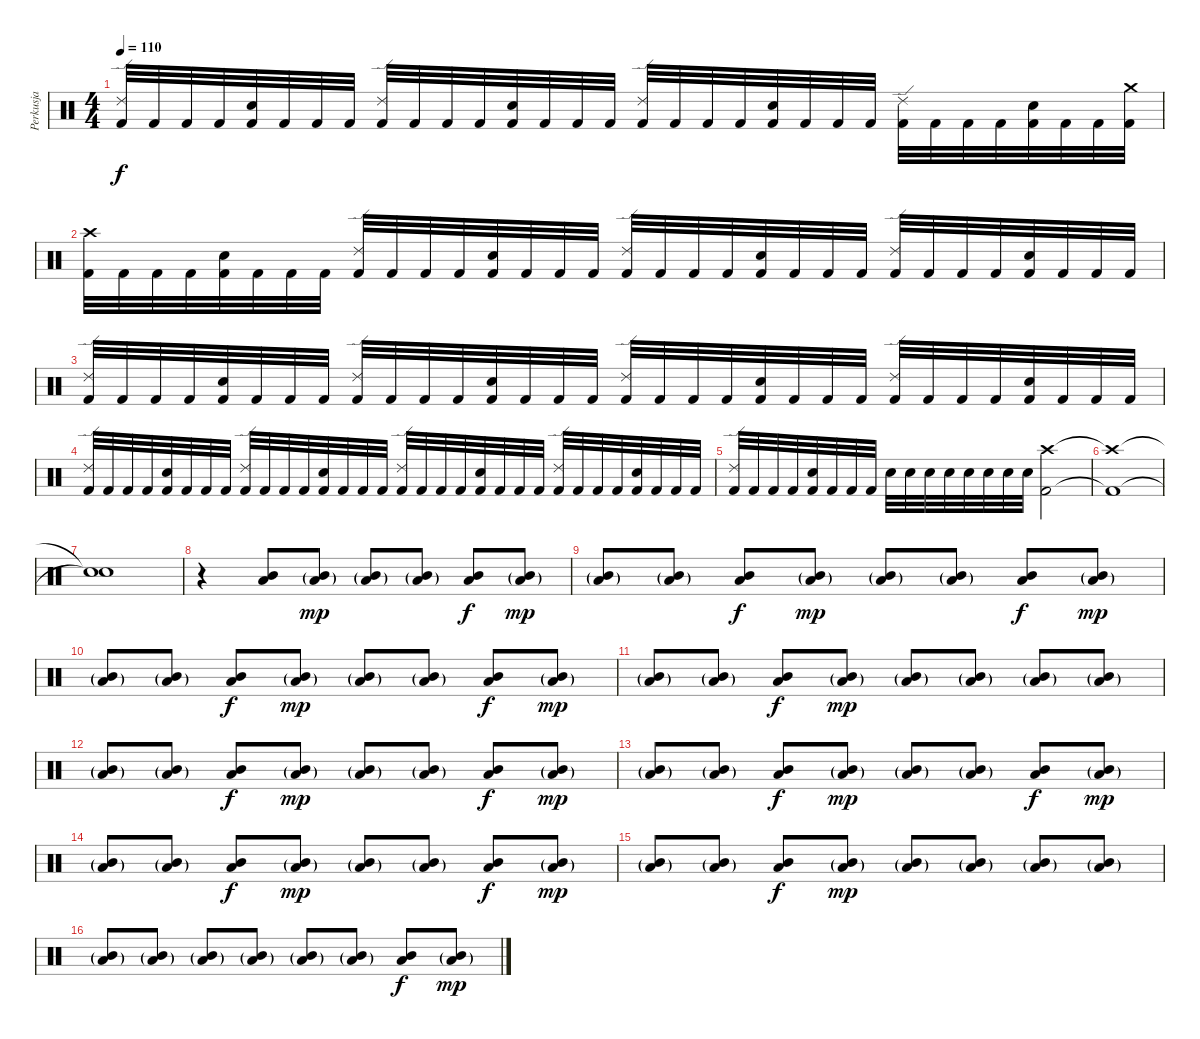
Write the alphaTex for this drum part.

\track ("Perkusja" "Perkusja") {instrument percussion}
\staff {score}
\articulation defaults
\ts (4 4)
\tempo 110
\clef neutral
\ks c
("Ride (edge) 2" "Kick (hit) 2").32{dy f} "Kick (hit) 2".32 "Kick (hit) 2".32 "Kick (hit) 2".32 ("Snare (hit) 2" "Kick (hit) 2").32 "Kick (hit) 2".32 "Kick (hit) 2".32 "Kick (hit) 2".32 ("Ride (edge) 2" "Kick (hit) 2").32 "Kick (hit) 2".32 "Kick (hit) 2".32 "Kick (hit) 2".32 ("Snare (hit) 2" "Kick (hit) 2").32 "Kick (hit) 2".32 "Kick (hit) 2".32 "Kick (hit) 2".32 ("Ride (edge) 2" "Kick (hit) 2").32 "Kick (hit) 2".32 "Kick (hit) 2".32 "Kick (hit) 2".32 ("Snare (hit) 2" "Kick (hit) 2").32 "Kick (hit) 2".32 "Kick (hit) 2".32 "Kick (hit) 2".32 ("Ride (edge) 2" "Kick (hit) 2").32 "Kick (hit) 2".32 "Kick (hit) 2".32 "Kick (hit) 2".32 ("Snare (hit) 2" "Kick (hit) 2").32 "Kick (hit) 2".32 "Kick (hit) 2".32 ("Crash medium (hit)" "Kick (hit) 2").32 |
("Crash high (hit)" "Kick (hit) 2").32 "Kick (hit) 2".32 "Kick (hit) 2".32 "Kick (hit) 2".32 ("Snare (hit) 2" "Kick (hit) 2").32 "Kick (hit) 2".32 "Kick (hit) 2".32 "Kick (hit) 2".32 ("Ride (edge) 2" "Kick (hit) 2").32 "Kick (hit) 2".32 "Kick (hit) 2".32 "Kick (hit) 2".32 ("Snare (hit) 2" "Kick (hit) 2").32 "Kick (hit) 2".32 "Kick (hit) 2".32 "Kick (hit) 2".32 ("Ride (edge) 2" "Kick (hit) 2").32 "Kick (hit) 2".32 "Kick (hit) 2".32 "Kick (hit) 2".32 ("Snare (hit) 2" "Kick (hit) 2").32 "Kick (hit) 2".32 "Kick (hit) 2".32 "Kick (hit) 2".32 ("Ride (edge) 2" "Kick (hit) 2").32 "Kick (hit) 2".32 "Kick (hit) 2".32 "Kick (hit) 2".32 ("Snare (hit) 2" "Kick (hit) 2").32 "Kick (hit) 2".32 "Kick (hit) 2".32 "Kick (hit) 2".32 |
("Ride (edge) 2" "Kick (hit) 2").32 "Kick (hit) 2".32 "Kick (hit) 2".32 "Kick (hit) 2".32 ("Snare (hit) 2" "Kick (hit) 2").32 "Kick (hit) 2".32 "Kick (hit) 2".32 "Kick (hit) 2".32 ("Ride (edge) 2" "Kick (hit) 2").32 "Kick (hit) 2".32 "Kick (hit) 2".32 "Kick (hit) 2".32 ("Snare (hit) 2" "Kick (hit) 2").32 "Kick (hit) 2".32 "Kick (hit) 2".32 "Kick (hit) 2".32 ("Ride (edge) 2" "Kick (hit) 2").32 "Kick (hit) 2".32 "Kick (hit) 2".32 "Kick (hit) 2".32 ("Snare (hit) 2" "Kick (hit) 2").32 "Kick (hit) 2".32 "Kick (hit) 2".32 "Kick (hit) 2".32 ("Ride (edge) 2" "Kick (hit) 2").32 "Kick (hit) 2".32 "Kick (hit) 2".32 "Kick (hit) 2".32 ("Snare (hit) 2" "Kick (hit) 2").32 "Kick (hit) 2".32 "Kick (hit) 2".32 "Kick (hit) 2".32 |
("Ride (edge) 2" "Kick (hit) 2").32 "Kick (hit) 2".32 "Kick (hit) 2".32 "Kick (hit) 2".32 ("Snare (hit) 2" "Kick (hit) 2").32 "Kick (hit) 2".32 "Kick (hit) 2".32 "Kick (hit) 2".32 ("Ride (edge) 2" "Kick (hit) 2").32 "Kick (hit) 2".32 "Kick (hit) 2".32 "Kick (hit) 2".32 ("Snare (hit) 2" "Kick (hit) 2").32 "Kick (hit) 2".32 "Kick (hit) 2".32 "Kick (hit) 2".32 ("Ride (edge) 2" "Kick (hit) 2").32 "Kick (hit) 2".32 "Kick (hit) 2".32 "Kick (hit) 2".32 ("Snare (hit) 2" "Kick (hit) 2").32 "Kick (hit) 2".32 "Kick (hit) 2".32 "Kick (hit) 2".32 ("Ride (edge) 2" "Kick (hit) 2").32 "Kick (hit) 2".32 "Kick (hit) 2".32 "Kick (hit) 2".32 ("Snare (hit) 2" "Kick (hit) 2").32 "Kick (hit) 2".32 "Kick (hit) 2".32 "Kick (hit) 2".32 |
("Ride (edge) 2" "Kick (hit) 2").32 "Kick (hit) 2".32 "Kick (hit) 2".32 "Kick (hit) 2".32 ("Snare (hit) 2" "Kick (hit) 2").32 "Kick (hit) 2".32 "Kick (hit) 2".32 "Kick (hit) 2".32 "Snare (hit) 2".32 "Snare (hit) 2".32 "Snare (hit) 2".32 "Snare (hit) 2".32 "Snare (hit) 2".32 "Snare (hit) 2".32 "Snare (hit) 2".32 "Snare (hit) 2".32 ("Crash high (hit)" "Kick (hit) 2").2 |
("Crash high (hit)"{t} "Kick (hit) 2"{t}).1 |
("Snare (hit)"{t} "Snare (hit)"{t}).1 |
r.4 ("Mid Tom (hit)" "Low Tom (hit)").8 ("Mid Tom (hit)"{g} "Low Tom (hit)"{g}).8{dy mp} ("Mid Tom (hit)"{g} "Low Tom (hit)"{g}).8 ("Mid Tom (hit)"{g} "Low Tom (hit)"{g}).8 ("Mid Tom (hit)" "Low Tom (hit)").8{dy f} ("Mid Tom (hit)"{g} "Low Tom (hit)"{g}).8{dy mp} |
("Mid Tom (hit)"{g} "Low Tom (hit)"{g}).8 ("Mid Tom (hit)"{g} "Low Tom (hit)"{g}).8 ("Mid Tom (hit)" "Low Tom (hit)").8{dy f} ("Mid Tom (hit)"{g} "Low Tom (hit)"{g}).8{dy mp} ("Mid Tom (hit)"{g} "Low Tom (hit)"{g}).8 ("Mid Tom (hit)"{g} "Low Tom (hit)"{g}).8 ("Mid Tom (hit)" "Low Tom (hit)").8{dy f} ("Mid Tom (hit)"{g} "Low Tom (hit)"{g}).8{dy mp} |
("Mid Tom (hit)"{g} "Low Tom (hit)"{g}).8 ("Mid Tom (hit)"{g} "Low Tom (hit)"{g}).8 ("Mid Tom (hit)" "Low Tom (hit)").8{dy f} ("Mid Tom (hit)"{g} "Low Tom (hit)"{g}).8{dy mp} ("Mid Tom (hit)"{g} "Low Tom (hit)"{g}).8 ("Mid Tom (hit)"{g} "Low Tom (hit)"{g}).8 ("Mid Tom (hit)" "Low Tom (hit)").8{dy f} ("Mid Tom (hit)"{g} "Low Tom (hit)"{g}).8{dy mp} |
("Mid Tom (hit)"{g} "Low Tom (hit)"{g}).8 ("Mid Tom (hit)"{g} "Low Tom (hit)"{g}).8 ("Mid Tom (hit)" "Low Tom (hit)").8{dy f} ("Mid Tom (hit)"{g} "Low Tom (hit)"{g}).8{dy mp} ("Mid Tom (hit)"{g} "Low Tom (hit)"{g}).8 ("Mid Tom (hit)"{g} "Low Tom (hit)"{g}).8 ("Mid Tom (hit)"{g} "Low Tom (hit)"{g}).8 ("Mid Tom (hit)"{g} "Low Tom (hit)"{g}).8 |
("Mid Tom (hit)"{g} "Low Tom (hit)"{g}).8 ("Mid Tom (hit)"{g} "Low Tom (hit)"{g}).8 ("Mid Tom (hit)" "Low Tom (hit)").8{dy f} ("Mid Tom (hit)"{g} "Low Tom (hit)"{g}).8{dy mp} ("Mid Tom (hit)"{g} "Low Tom (hit)"{g}).8 ("Mid Tom (hit)"{g} "Low Tom (hit)"{g}).8 ("Mid Tom (hit)" "Low Tom (hit)").8{dy f} ("Mid Tom (hit)"{g} "Low Tom (hit)"{g}).8{dy mp} |
("Mid Tom (hit)"{g} "Low Tom (hit)"{g}).8 ("Mid Tom (hit)"{g} "Low Tom (hit)"{g}).8 ("Mid Tom (hit)" "Low Tom (hit)").8{dy f} ("Mid Tom (hit)"{g} "Low Tom (hit)"{g}).8{dy mp} ("Mid Tom (hit)"{g} "Low Tom (hit)"{g}).8 ("Mid Tom (hit)"{g} "Low Tom (hit)"{g}).8 ("Mid Tom (hit)" "Low Tom (hit)").8{dy f} ("Mid Tom (hit)"{g} "Low Tom (hit)"{g}).8{dy mp} |
("Mid Tom (hit)"{g} "Low Tom (hit)"{g}).8 ("Mid Tom (hit)"{g} "Low Tom (hit)"{g}).8 ("Mid Tom (hit)" "Low Tom (hit)").8{dy f} ("Mid Tom (hit)"{g} "Low Tom (hit)"{g}).8{dy mp} ("Mid Tom (hit)"{g} "Low Tom (hit)"{g}).8 ("Mid Tom (hit)"{g} "Low Tom (hit)"{g}).8 ("Mid Tom (hit)" "Low Tom (hit)").8{dy f} ("Mid Tom (hit)"{g} "Low Tom (hit)"{g}).8{dy mp} |
("Mid Tom (hit)"{g} "Low Tom (hit)"{g}).8 ("Mid Tom (hit)"{g} "Low Tom (hit)"{g}).8 ("Mid Tom (hit)" "Low Tom (hit)").8{dy f} ("Mid Tom (hit)"{g} "Low Tom (hit)"{g}).8{dy mp} ("Mid Tom (hit)"{g} "Low Tom (hit)"{g}).8 ("Mid Tom (hit)"{g} "Low Tom (hit)"{g}).8 ("Mid Tom (hit)"{g} "Low Tom (hit)"{g}).8 ("Mid Tom (hit)"{g} "Low Tom (hit)"{g}).8 |
("Mid Tom (hit)"{g} "Low Tom (hit)"{g}).8 ("Mid Tom (hit)"{g} "Low Tom (hit)"{g}).8 ("Mid Tom (hit)"{g} "Low Tom (hit)"{g}).8 ("Mid Tom (hit)"{g} "Low Tom (hit)"{g}).8 ("Mid Tom (hit)"{g} "Low Tom (hit)"{g}).8 ("Mid Tom (hit)"{g} "Low Tom (hit)"{g}).8 ("Mid Tom (hit)" "Low Tom (hit)").8{dy f} ("Mid Tom (hit)"{g} "Low Tom (hit)"{g}).8{dy mp}
